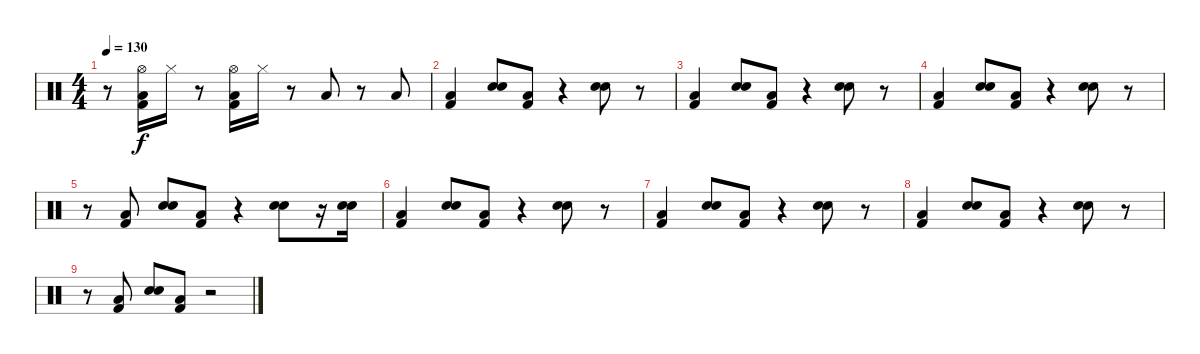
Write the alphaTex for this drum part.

\track "" {instrument percussion}
\staff {score}
\articulation defaults
\ts (4 4)
\tempo 130
\clef neutral
\ks c
r.8{dy f} ("Kick (hit) 2" "Low Floor Tom (hit)" "Hi-Hat (open)").16 "Hi-Hat (closed)".16 r.8 ("Kick (hit) 2" "Low Floor Tom (hit)" "Hi-Hat (open)").16 "Hi-Hat (closed)".16 r.8 "Low Floor Tom (hit)".8 r.8 "Low Floor Tom (hit)".8 |
("Kick (hit) 2" "Low Floor Tom (hit)").4 ("Snare (hit) 2" "Hand Clap (hit)").8 ("Kick (hit) 2" "Low Floor Tom (hit)").8 r.4 ("Snare (hit) 2" "Hand Clap (hit)").8 r.8 |
("Kick (hit) 2" "Low Floor Tom (hit)").4 ("Snare (hit) 2" "Hand Clap (hit)").8 ("Kick (hit) 2" "Low Floor Tom (hit)").8 r.4 ("Snare (hit) 2" "Hand Clap (hit)").8 r.8 |
("Kick (hit) 2" "Low Floor Tom (hit)").4 ("Snare (hit) 2" "Hand Clap (hit)").8 ("Kick (hit) 2" "Low Floor Tom (hit)").8 r.4 ("Snare (hit) 2" "Hand Clap (hit)").8 r.8 |
r.8 ("Kick (hit) 2" "Low Floor Tom (hit)").8 ("Snare (hit) 2" "Hand Clap (hit)").8 ("Kick (hit) 2" "Low Floor Tom (hit)").8 r.4 ("Snare (hit) 2" "Hand Clap (hit)").8 r.16 ("Snare (hit) 2" "Hand Clap (hit)").16 |
("Kick (hit) 2" "Low Floor Tom (hit)").4 ("Snare (hit) 2" "Hand Clap (hit)").8 ("Kick (hit) 2" "Low Floor Tom (hit)").8 r.4 ("Snare (hit) 2" "Hand Clap (hit)").8 r.8 |
("Kick (hit) 2" "Low Floor Tom (hit)").4 ("Snare (hit) 2" "Hand Clap (hit)").8 ("Kick (hit) 2" "Low Floor Tom (hit)").8 r.4 ("Snare (hit) 2" "Hand Clap (hit)").8 r.8 |
("Kick (hit) 2" "Low Floor Tom (hit)").4 ("Snare (hit) 2" "Hand Clap (hit)").8 ("Kick (hit) 2" "Low Floor Tom (hit)").8 r.4 ("Snare (hit) 2" "Hand Clap (hit)").8 r.8 |
r.8 ("Kick (hit) 2" "Low Floor Tom (hit)").8 ("Snare (hit) 2" "Hand Clap (hit)").8 ("Kick (hit) 2" "Low Floor Tom (hit)").8 r.2
